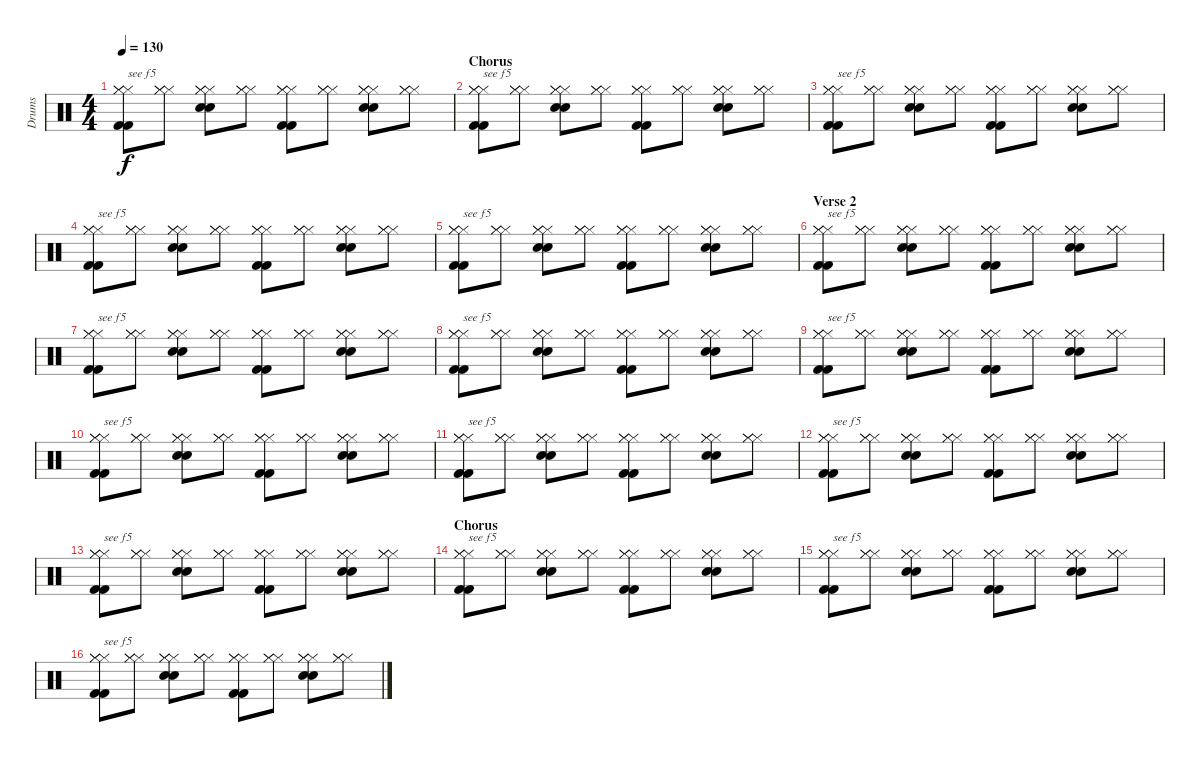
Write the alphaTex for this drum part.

\track ("Drums" "Drums") {instrument percussion}
\staff {score}
\articulation defaults
\ts (4 4)
\tempo 130
\clef neutral
\ks c
("Hi-Hat (closed)" "Hi-Hat (closed)" "Hi-Hat (closed)" "Kick (hit) 2" "Kick (hit) 2").8{txt "see f5" dy f} ("Hi-Hat (closed)" "Hi-Hat (closed)" "Hi-Hat (closed)").8 ("Hi-Hat (closed)" "Hi-Hat (closed)" "Hi-Hat (closed)" "Electric Snare (hit)" "Electric Snare (hit)").8 ("Hi-Hat (closed)" "Hi-Hat (closed)" "Hi-Hat (closed)").8 ("Hi-Hat (closed)" "Hi-Hat (closed)" "Hi-Hat (closed)" "Kick (hit) 2" "Kick (hit) 2").8 ("Hi-Hat (closed)" "Hi-Hat (closed)" "Hi-Hat (closed)").8 ("Hi-Hat (closed)" "Hi-Hat (closed)" "Hi-Hat (closed)" "Electric Snare (hit)" "Electric Snare (hit)").8 ("Hi-Hat (closed)" "Hi-Hat (closed)" "Hi-Hat (closed)").8 |
\section ("" "Chorus")
("Hi-Hat (closed)" "Hi-Hat (closed)" "Hi-Hat (closed)" "Kick (hit) 2" "Kick (hit) 2").8{txt "see f5"} ("Hi-Hat (closed)" "Hi-Hat (closed)" "Hi-Hat (closed)").8 ("Hi-Hat (closed)" "Hi-Hat (closed)" "Hi-Hat (closed)" "Electric Snare (hit)" "Electric Snare (hit)").8 ("Hi-Hat (closed)" "Hi-Hat (closed)" "Hi-Hat (closed)").8 ("Hi-Hat (closed)" "Hi-Hat (closed)" "Hi-Hat (closed)" "Kick (hit) 2" "Kick (hit) 2").8 ("Hi-Hat (closed)" "Hi-Hat (closed)" "Hi-Hat (closed)").8 ("Hi-Hat (closed)" "Hi-Hat (closed)" "Hi-Hat (closed)" "Electric Snare (hit)" "Electric Snare (hit)").8 ("Hi-Hat (closed)" "Hi-Hat (closed)" "Hi-Hat (closed)").8 |
("Hi-Hat (closed)" "Hi-Hat (closed)" "Hi-Hat (closed)" "Kick (hit) 2" "Kick (hit) 2").8{txt "see f5"} ("Hi-Hat (closed)" "Hi-Hat (closed)" "Hi-Hat (closed)").8 ("Hi-Hat (closed)" "Hi-Hat (closed)" "Hi-Hat (closed)" "Electric Snare (hit)" "Electric Snare (hit)").8 ("Hi-Hat (closed)" "Hi-Hat (closed)" "Hi-Hat (closed)").8 ("Hi-Hat (closed)" "Hi-Hat (closed)" "Hi-Hat (closed)" "Kick (hit) 2" "Kick (hit) 2").8 ("Hi-Hat (closed)" "Hi-Hat (closed)" "Hi-Hat (closed)").8 ("Hi-Hat (closed)" "Hi-Hat (closed)" "Hi-Hat (closed)" "Electric Snare (hit)" "Electric Snare (hit)").8 ("Hi-Hat (closed)" "Hi-Hat (closed)" "Hi-Hat (closed)").8 |
("Hi-Hat (closed)" "Hi-Hat (closed)" "Hi-Hat (closed)" "Kick (hit) 2" "Kick (hit) 2").8{txt "see f5"} ("Hi-Hat (closed)" "Hi-Hat (closed)" "Hi-Hat (closed)").8 ("Hi-Hat (closed)" "Hi-Hat (closed)" "Hi-Hat (closed)" "Electric Snare (hit)" "Electric Snare (hit)").8 ("Hi-Hat (closed)" "Hi-Hat (closed)" "Hi-Hat (closed)").8 ("Hi-Hat (closed)" "Hi-Hat (closed)" "Hi-Hat (closed)" "Kick (hit) 2" "Kick (hit) 2").8 ("Hi-Hat (closed)" "Hi-Hat (closed)" "Hi-Hat (closed)").8 ("Hi-Hat (closed)" "Hi-Hat (closed)" "Hi-Hat (closed)" "Electric Snare (hit)" "Electric Snare (hit)").8 ("Hi-Hat (closed)" "Hi-Hat (closed)" "Hi-Hat (closed)").8 |
("Hi-Hat (closed)" "Hi-Hat (closed)" "Hi-Hat (closed)" "Kick (hit) 2" "Kick (hit) 2").8{txt "see f5"} ("Hi-Hat (closed)" "Hi-Hat (closed)" "Hi-Hat (closed)").8 ("Hi-Hat (closed)" "Hi-Hat (closed)" "Hi-Hat (closed)" "Electric Snare (hit)" "Electric Snare (hit)").8 ("Hi-Hat (closed)" "Hi-Hat (closed)" "Hi-Hat (closed)").8 ("Hi-Hat (closed)" "Hi-Hat (closed)" "Hi-Hat (closed)" "Kick (hit) 2" "Kick (hit) 2").8 ("Hi-Hat (closed)" "Hi-Hat (closed)" "Hi-Hat (closed)").8 ("Hi-Hat (closed)" "Hi-Hat (closed)" "Hi-Hat (closed)" "Electric Snare (hit)" "Electric Snare (hit)").8 ("Hi-Hat (closed)" "Hi-Hat (closed)" "Hi-Hat (closed)").8 |
\section ("" "Verse 2")
("Hi-Hat (closed)" "Hi-Hat (closed)" "Hi-Hat (closed)" "Kick (hit) 2" "Kick (hit) 2").8{txt "see f5"} ("Hi-Hat (closed)" "Hi-Hat (closed)" "Hi-Hat (closed)").8 ("Hi-Hat (closed)" "Hi-Hat (closed)" "Hi-Hat (closed)" "Electric Snare (hit)" "Electric Snare (hit)").8 ("Hi-Hat (closed)" "Hi-Hat (closed)" "Hi-Hat (closed)").8 ("Hi-Hat (closed)" "Hi-Hat (closed)" "Hi-Hat (closed)" "Kick (hit) 2" "Kick (hit) 2").8 ("Hi-Hat (closed)" "Hi-Hat (closed)" "Hi-Hat (closed)").8 ("Hi-Hat (closed)" "Hi-Hat (closed)" "Hi-Hat (closed)" "Electric Snare (hit)" "Electric Snare (hit)").8 ("Hi-Hat (closed)" "Hi-Hat (closed)" "Hi-Hat (closed)").8 |
("Hi-Hat (closed)" "Hi-Hat (closed)" "Hi-Hat (closed)" "Kick (hit) 2" "Kick (hit) 2").8{txt "see f5"} ("Hi-Hat (closed)" "Hi-Hat (closed)" "Hi-Hat (closed)").8 ("Hi-Hat (closed)" "Hi-Hat (closed)" "Hi-Hat (closed)" "Electric Snare (hit)" "Electric Snare (hit)").8 ("Hi-Hat (closed)" "Hi-Hat (closed)" "Hi-Hat (closed)").8 ("Hi-Hat (closed)" "Hi-Hat (closed)" "Hi-Hat (closed)" "Kick (hit) 2" "Kick (hit) 2").8 ("Hi-Hat (closed)" "Hi-Hat (closed)" "Hi-Hat (closed)").8 ("Hi-Hat (closed)" "Hi-Hat (closed)" "Hi-Hat (closed)" "Electric Snare (hit)" "Electric Snare (hit)").8 ("Hi-Hat (closed)" "Hi-Hat (closed)" "Hi-Hat (closed)").8 |
("Hi-Hat (closed)" "Hi-Hat (closed)" "Hi-Hat (closed)" "Kick (hit) 2" "Kick (hit) 2").8{txt "see f5"} ("Hi-Hat (closed)" "Hi-Hat (closed)" "Hi-Hat (closed)").8 ("Hi-Hat (closed)" "Hi-Hat (closed)" "Hi-Hat (closed)" "Electric Snare (hit)" "Electric Snare (hit)").8 ("Hi-Hat (closed)" "Hi-Hat (closed)" "Hi-Hat (closed)").8 ("Hi-Hat (closed)" "Hi-Hat (closed)" "Hi-Hat (closed)" "Kick (hit) 2" "Kick (hit) 2").8 ("Hi-Hat (closed)" "Hi-Hat (closed)" "Hi-Hat (closed)").8 ("Hi-Hat (closed)" "Hi-Hat (closed)" "Hi-Hat (closed)" "Electric Snare (hit)" "Electric Snare (hit)").8 ("Hi-Hat (closed)" "Hi-Hat (closed)" "Hi-Hat (closed)").8 |
("Hi-Hat (closed)" "Hi-Hat (closed)" "Hi-Hat (closed)" "Kick (hit) 2" "Kick (hit) 2").8{txt "see f5"} ("Hi-Hat (closed)" "Hi-Hat (closed)" "Hi-Hat (closed)").8 ("Hi-Hat (closed)" "Hi-Hat (closed)" "Hi-Hat (closed)" "Electric Snare (hit)" "Electric Snare (hit)").8 ("Hi-Hat (closed)" "Hi-Hat (closed)" "Hi-Hat (closed)").8 ("Hi-Hat (closed)" "Hi-Hat (closed)" "Hi-Hat (closed)" "Kick (hit) 2" "Kick (hit) 2").8 ("Hi-Hat (closed)" "Hi-Hat (closed)" "Hi-Hat (closed)").8 ("Hi-Hat (closed)" "Hi-Hat (closed)" "Hi-Hat (closed)" "Electric Snare (hit)" "Electric Snare (hit)").8 ("Hi-Hat (closed)" "Hi-Hat (closed)" "Hi-Hat (closed)").8 |
("Hi-Hat (closed)" "Hi-Hat (closed)" "Hi-Hat (closed)" "Kick (hit) 2" "Kick (hit) 2").8{txt "see f5"} ("Hi-Hat (closed)" "Hi-Hat (closed)" "Hi-Hat (closed)").8 ("Hi-Hat (closed)" "Hi-Hat (closed)" "Hi-Hat (closed)" "Electric Snare (hit)" "Electric Snare (hit)").8 ("Hi-Hat (closed)" "Hi-Hat (closed)" "Hi-Hat (closed)").8 ("Hi-Hat (closed)" "Hi-Hat (closed)" "Hi-Hat (closed)" "Kick (hit) 2" "Kick (hit) 2").8 ("Hi-Hat (closed)" "Hi-Hat (closed)" "Hi-Hat (closed)").8 ("Hi-Hat (closed)" "Hi-Hat (closed)" "Hi-Hat (closed)" "Electric Snare (hit)" "Electric Snare (hit)").8 ("Hi-Hat (closed)" "Hi-Hat (closed)" "Hi-Hat (closed)").8 |
("Hi-Hat (closed)" "Hi-Hat (closed)" "Hi-Hat (closed)" "Kick (hit) 2" "Kick (hit) 2").8{txt "see f5"} ("Hi-Hat (closed)" "Hi-Hat (closed)" "Hi-Hat (closed)").8 ("Hi-Hat (closed)" "Hi-Hat (closed)" "Hi-Hat (closed)" "Electric Snare (hit)" "Electric Snare (hit)").8 ("Hi-Hat (closed)" "Hi-Hat (closed)" "Hi-Hat (closed)").8 ("Hi-Hat (closed)" "Hi-Hat (closed)" "Hi-Hat (closed)" "Kick (hit) 2" "Kick (hit) 2").8 ("Hi-Hat (closed)" "Hi-Hat (closed)" "Hi-Hat (closed)").8 ("Hi-Hat (closed)" "Hi-Hat (closed)" "Hi-Hat (closed)" "Electric Snare (hit)" "Electric Snare (hit)").8 ("Hi-Hat (closed)" "Hi-Hat (closed)" "Hi-Hat (closed)").8 |
("Hi-Hat (closed)" "Hi-Hat (closed)" "Hi-Hat (closed)" "Kick (hit) 2" "Kick (hit) 2").8{txt "see f5"} ("Hi-Hat (closed)" "Hi-Hat (closed)" "Hi-Hat (closed)").8 ("Hi-Hat (closed)" "Hi-Hat (closed)" "Hi-Hat (closed)" "Electric Snare (hit)" "Electric Snare (hit)").8 ("Hi-Hat (closed)" "Hi-Hat (closed)" "Hi-Hat (closed)").8 ("Hi-Hat (closed)" "Hi-Hat (closed)" "Hi-Hat (closed)" "Kick (hit) 2" "Kick (hit) 2").8 ("Hi-Hat (closed)" "Hi-Hat (closed)" "Hi-Hat (closed)").8 ("Hi-Hat (closed)" "Hi-Hat (closed)" "Hi-Hat (closed)" "Electric Snare (hit)" "Electric Snare (hit)").8 ("Hi-Hat (closed)" "Hi-Hat (closed)" "Hi-Hat (closed)").8 |
("Hi-Hat (closed)" "Hi-Hat (closed)" "Hi-Hat (closed)" "Kick (hit) 2" "Kick (hit) 2").8{txt "see f5"} ("Hi-Hat (closed)" "Hi-Hat (closed)" "Hi-Hat (closed)").8 ("Hi-Hat (closed)" "Hi-Hat (closed)" "Hi-Hat (closed)" "Electric Snare (hit)" "Electric Snare (hit)").8 ("Hi-Hat (closed)" "Hi-Hat (closed)" "Hi-Hat (closed)").8 ("Hi-Hat (closed)" "Hi-Hat (closed)" "Hi-Hat (closed)" "Kick (hit) 2" "Kick (hit) 2").8 ("Hi-Hat (closed)" "Hi-Hat (closed)" "Hi-Hat (closed)").8 ("Hi-Hat (closed)" "Hi-Hat (closed)" "Hi-Hat (closed)" "Electric Snare (hit)" "Electric Snare (hit)").8 ("Hi-Hat (closed)" "Hi-Hat (closed)" "Hi-Hat (closed)").8 |
\section ("" "Chorus")
("Hi-Hat (closed)" "Hi-Hat (closed)" "Hi-Hat (closed)" "Kick (hit) 2" "Kick (hit) 2").8{txt "see f5"} ("Hi-Hat (closed)" "Hi-Hat (closed)" "Hi-Hat (closed)").8 ("Hi-Hat (closed)" "Hi-Hat (closed)" "Hi-Hat (closed)" "Electric Snare (hit)" "Electric Snare (hit)").8 ("Hi-Hat (closed)" "Hi-Hat (closed)" "Hi-Hat (closed)").8 ("Hi-Hat (closed)" "Hi-Hat (closed)" "Hi-Hat (closed)" "Kick (hit) 2" "Kick (hit) 2").8 ("Hi-Hat (closed)" "Hi-Hat (closed)" "Hi-Hat (closed)").8 ("Hi-Hat (closed)" "Hi-Hat (closed)" "Hi-Hat (closed)" "Electric Snare (hit)" "Electric Snare (hit)").8 ("Hi-Hat (closed)" "Hi-Hat (closed)" "Hi-Hat (closed)").8 |
("Hi-Hat (closed)" "Hi-Hat (closed)" "Hi-Hat (closed)" "Kick (hit) 2" "Kick (hit) 2").8{txt "see f5"} ("Hi-Hat (closed)" "Hi-Hat (closed)" "Hi-Hat (closed)").8 ("Hi-Hat (closed)" "Hi-Hat (closed)" "Hi-Hat (closed)" "Electric Snare (hit)" "Electric Snare (hit)").8 ("Hi-Hat (closed)" "Hi-Hat (closed)" "Hi-Hat (closed)").8 ("Hi-Hat (closed)" "Hi-Hat (closed)" "Hi-Hat (closed)" "Kick (hit) 2" "Kick (hit) 2").8 ("Hi-Hat (closed)" "Hi-Hat (closed)" "Hi-Hat (closed)").8 ("Hi-Hat (closed)" "Hi-Hat (closed)" "Hi-Hat (closed)" "Electric Snare (hit)" "Electric Snare (hit)").8 ("Hi-Hat (closed)" "Hi-Hat (closed)" "Hi-Hat (closed)").8 |
("Hi-Hat (closed)" "Hi-Hat (closed)" "Hi-Hat (closed)" "Kick (hit) 2" "Kick (hit) 2").8{txt "see f5"} ("Hi-Hat (closed)" "Hi-Hat (closed)" "Hi-Hat (closed)").8 ("Hi-Hat (closed)" "Hi-Hat (closed)" "Hi-Hat (closed)" "Electric Snare (hit)" "Electric Snare (hit)").8 ("Hi-Hat (closed)" "Hi-Hat (closed)" "Hi-Hat (closed)").8 ("Hi-Hat (closed)" "Hi-Hat (closed)" "Hi-Hat (closed)" "Kick (hit) 2" "Kick (hit) 2").8 ("Hi-Hat (closed)" "Hi-Hat (closed)" "Hi-Hat (closed)").8 ("Hi-Hat (closed)" "Hi-Hat (closed)" "Hi-Hat (closed)" "Electric Snare (hit)" "Electric Snare (hit)").8 ("Hi-Hat (closed)" "Hi-Hat (closed)" "Hi-Hat (closed)").8
